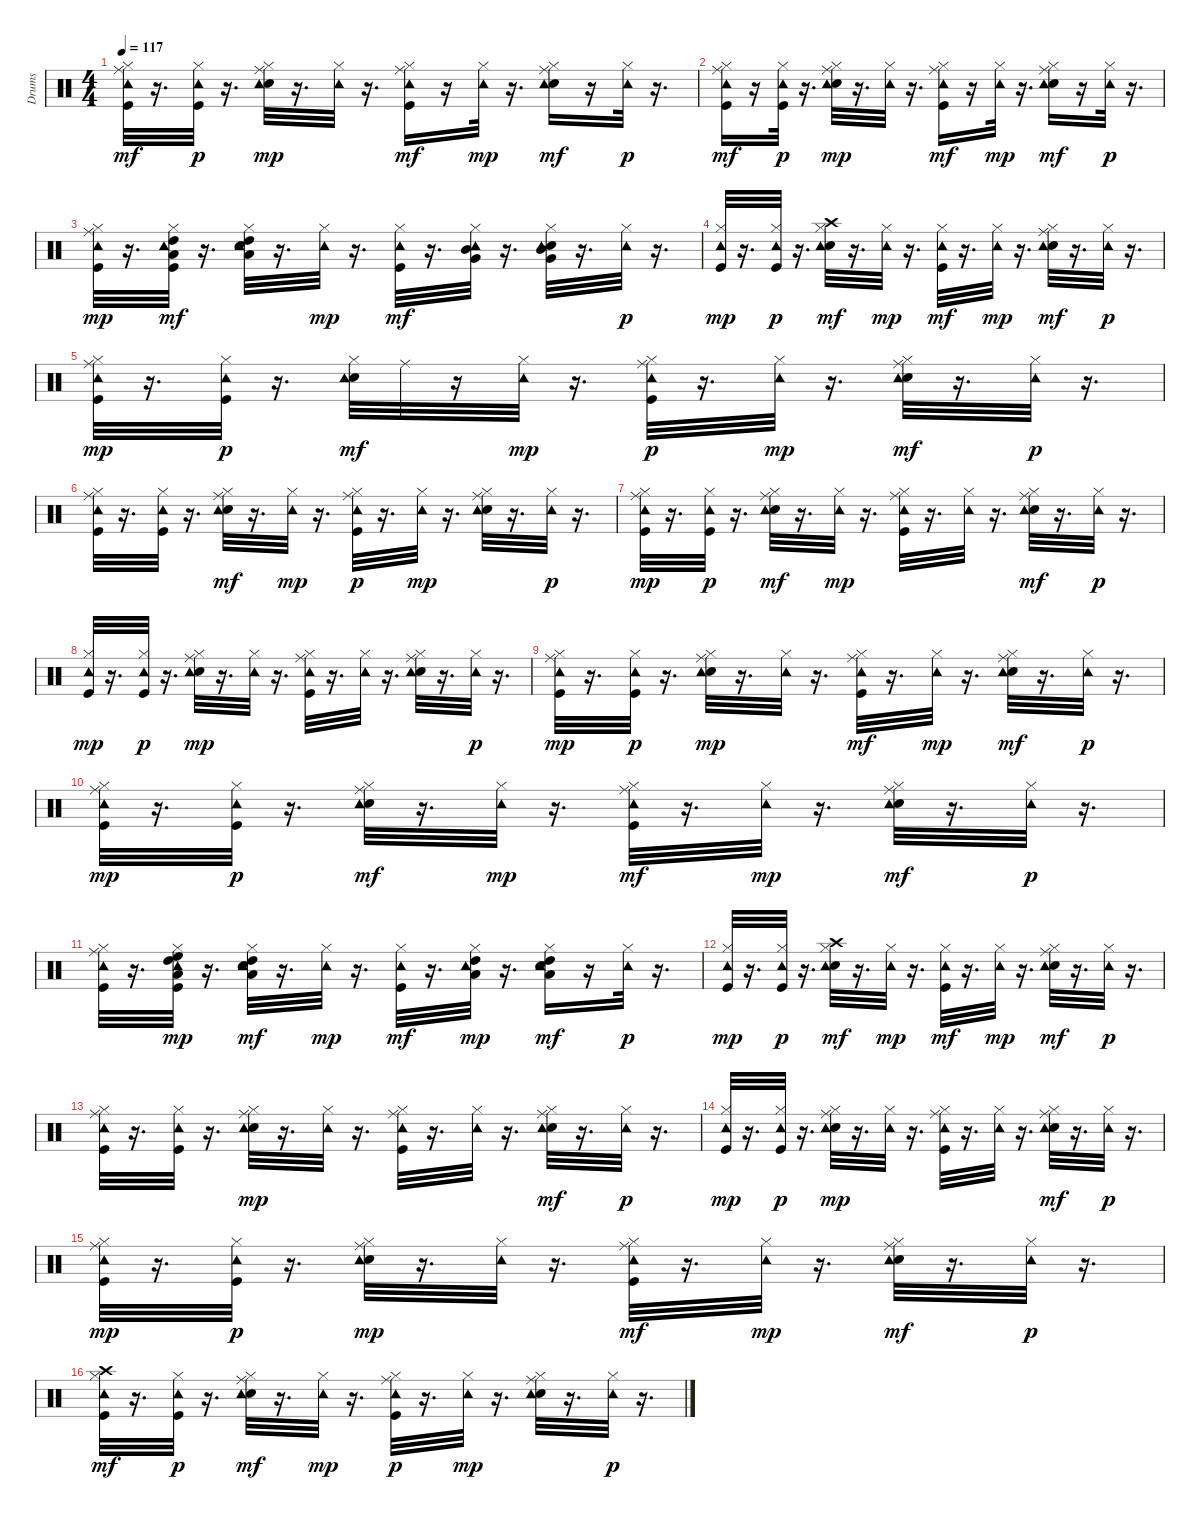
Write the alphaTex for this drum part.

\track ("Drums" "Drums") {instrument percussion}
\staff {score}
\articulation defaults
\ts (4 4)
\tempo 117
\clef neutral
\ks c
("Kick (hit)" "Hi-Hat (closed)" "Tambourine (hit)" "Ride (middle)").32{dy mf} r.16{d} ("Kick (hit)" "Hi-Hat (closed)" "Tambourine (hit)").32{dy p} r.16{d} ("Electric Snare (hit)" "Hi-Hat (closed)" "Tambourine (hit)" "Ride (middle)").32{dy mp} r.16{d} ("Hi-Hat (closed)" "Tambourine (hit)").32 r.16{d} ("Ride (middle)" "Kick (hit)" "Hi-Hat (closed)" "Tambourine (hit)").16{dy mf} r.16 ("Hi-Hat (closed)" "Tambourine (hit)").32{dy mp} r.16{d} ("Electric Snare (hit)" "Hi-Hat (closed)" "Tambourine (hit)" "Ride (middle)").16{dy mf} r.16 ("Hi-Hat (closed)" "Tambourine (hit)").32{dy p} r.16{d} |
("Kick (hit)" "Hi-Hat (closed)" "Tambourine (hit)" "Ride (middle)").16{dy mf} r.16 ("Kick (hit)" "Hi-Hat (closed)" "Tambourine (hit)").32{dy p} r.16{d} ("Electric Snare (hit)" "Hi-Hat (closed)" "Tambourine (hit)" "Ride (middle)").32{dy mp} r.16{d} ("Hi-Hat (closed)" "Tambourine (hit)").32 r.16{d} ("Kick (hit)" "Hi-Hat (closed)" "Tambourine (hit)" "Ride (middle)").16{dy mf} r.16 ("Hi-Hat (closed)" "Tambourine (hit)").32{dy mp} r.16{d} ("Electric Snare (hit)" "Hi-Hat (closed)" "Tambourine (hit)" "Ride (middle)").16{dy mf} r.16 ("Hi-Hat (closed)" "Tambourine (hit)").32{dy p} r.16{d} |
("Ride (middle)" "Kick (hit)" "Hi-Hat (closed)" "Tambourine (hit)").32{dy mp} r.16{d} ("High Tom (hit)" "Kick (hit)" "Hi-Hat (closed)" "Tambourine (hit)" "Low Tom (hit)").32{dy mf} r.16{d} ("Low Tom (hit)" "Electric Snare (hit)" "Hi-Hat (closed)" "Tambourine (hit)" "High Tom (hit)").32 r.16{d} ("Hi-Hat (closed)" "Tambourine (hit)").32{dy mp} r.16{d} ("Kick (hit)" "Hi-Hat (closed)" "Tambourine (hit)").32{dy mf} r.16{d} ("Mid Tom (hit)" "Hi-Hat (closed)" "Tambourine (hit)" "Very Low Tom (hit)").32 r.16{d} ("Electric Snare (hit)" "Hi-Hat (closed)" "Tambourine (hit)" "Mid Tom (hit)" "Very Low Tom (hit)").32 r.16{d} ("Hi-Hat (closed)" "Tambourine (hit)").32{dy p} r.16{d} |
("Kick (hit)" "Hi-Hat (closed)" "Tambourine (hit)").32{dy mp} r.16{d} ("Kick (hit)" "Hi-Hat (closed)" "Tambourine (hit)").32{dy p} r.16{d} ("Crash high (hit)" "Electric Snare (hit)" "Hi-Hat (closed)" "Tambourine (hit)").32{dy mf} r.16{d} ("Hi-Hat (closed)" "Tambourine (hit)").32{dy mp} r.16{d} ("Kick (hit)" "Hi-Hat (closed)" "Tambourine (hit)").32{dy mf} r.16{d} ("Hi-Hat (closed)" "Tambourine (hit)").32{dy mp} r.16{d} ("Electric Snare (hit)" "Hi-Hat (closed)" "Tambourine (hit)" "Ride (middle)").32{dy mf} r.16{d} ("Hi-Hat (closed)" "Tambourine (hit)").32{dy p} r.16{d} |
("Kick (hit)" "Hi-Hat (closed)" "Tambourine (hit)" "Ride (middle)").32{dy mp} r.16{d} ("Kick (hit)" "Hi-Hat (closed)" "Tambourine (hit)").32{dy p} r.16{d} ("Electric Snare (hit)" "Hi-Hat (closed)" "Tambourine (hit)").32{dy mf} "Ride (middle)".32 r.16 ("Hi-Hat (closed)" "Tambourine (hit)").32{dy mp} r.16{d} ("Kick (hit)" "Hi-Hat (closed)" "Tambourine (hit)" "Ride (middle)").32{dy p} r.16{d} ("Hi-Hat (closed)" "Tambourine (hit)").32{dy mp} r.16{d} ("Electric Snare (hit)" "Hi-Hat (closed)" "Tambourine (hit)" "Ride (middle)").32{dy mf} r.16{d} ("Hi-Hat (closed)" "Tambourine (hit)").32{dy p} r.16{d} |
("Kick (hit)" "Hi-Hat (closed)" "Tambourine (hit)" "Ride (middle)").32 r.16{d} ("Kick (hit)" "Hi-Hat (closed)" "Tambourine (hit)").32 r.16{d} ("Electric Snare (hit)" "Hi-Hat (closed)" "Tambourine (hit)" "Ride (middle)").32{dy mf} r.16{d} ("Hi-Hat (closed)" "Tambourine (hit)").32{dy mp} r.16{d} ("Kick (hit)" "Hi-Hat (closed)" "Tambourine (hit)" "Ride (middle)").32{dy p} r.16{d} ("Hi-Hat (closed)" "Tambourine (hit)").32{dy mp} r.16{d} ("Electric Snare (hit)" "Hi-Hat (closed)" "Tambourine (hit)" "Ride (middle)").32 r.16{d} ("Hi-Hat (closed)" "Tambourine (hit)").32{dy p} r.16{d} |
("Kick (hit)" "Hi-Hat (closed)" "Tambourine (hit)" "Ride (middle)").32{dy mp} r.16{d} ("Kick (hit)" "Hi-Hat (closed)" "Tambourine (hit)").32{dy p} r.16{d} ("Electric Snare (hit)" "Hi-Hat (closed)" "Tambourine (hit)" "Ride (middle)").32{dy mf} r.16{d} ("Hi-Hat (closed)" "Tambourine (hit)").32{dy mp} r.16{d} ("Kick (hit)" "Hi-Hat (closed)" "Tambourine (hit)" "Ride (middle)").32 r.16{d} ("Hi-Hat (closed)" "Tambourine (hit)").32 r.16{d} ("Electric Snare (hit)" "Hi-Hat (closed)" "Tambourine (hit)" "Ride (middle)").32{dy mf} r.16{d} ("Hi-Hat (closed)" "Tambourine (hit)").32{dy p} r.16{d} |
("Kick (hit)" "Hi-Hat (closed)" "Tambourine (hit)").32{dy mp} r.16{d} ("Kick (hit)" "Hi-Hat (closed)" "Tambourine (hit)").32{dy p} r.16{d} ("Electric Snare (hit)" "Hi-Hat (closed)" "Tambourine (hit)" "Ride (middle)").32{dy mp} r.16{d} ("Hi-Hat (closed)" "Tambourine (hit)").32 r.16{d} ("Kick (hit)" "Hi-Hat (closed)" "Tambourine (hit)" "Ride (middle)").32 r.16{d} ("Hi-Hat (closed)" "Tambourine (hit)").32 r.16{d} ("Electric Snare (hit)" "Hi-Hat (closed)" "Tambourine (hit)" "Ride (middle)").32 r.16{d} ("Hi-Hat (closed)" "Tambourine (hit)").32{dy p} r.16{d} |
("Kick (hit)" "Hi-Hat (closed)" "Tambourine (hit)" "Ride (middle)").32{dy mp} r.16{d} ("Kick (hit)" "Hi-Hat (closed)" "Tambourine (hit)").32{dy p} r.16{d} ("Electric Snare (hit)" "Hi-Hat (closed)" "Tambourine (hit)" "Ride (middle)").32{dy mp} r.16{d} ("Hi-Hat (closed)" "Tambourine (hit)").32 r.16{d} ("Kick (hit)" "Hi-Hat (closed)" "Tambourine (hit)" "Ride (middle)").32{dy mf} r.16{d} ("Hi-Hat (closed)" "Tambourine (hit)").32{dy mp} r.16{d} ("Electric Snare (hit)" "Hi-Hat (closed)" "Tambourine (hit)" "Ride (middle)").32{dy mf} r.16{d} ("Hi-Hat (closed)" "Tambourine (hit)").32{dy p} r.16{d} |
("Ride (middle)" "Kick (hit)" "Hi-Hat (closed)" "Tambourine (hit)").32{dy mp} r.16{d} ("Kick (hit)" "Hi-Hat (closed)" "Tambourine (hit)").32{dy p} r.16{d} ("Electric Snare (hit)" "Hi-Hat (closed)" "Tambourine (hit)" "Ride (middle)").32{dy mf} r.16{d} ("Hi-Hat (closed)" "Tambourine (hit)").32{dy mp} r.16{d} ("Ride (middle)" "Kick (hit)" "Hi-Hat (closed)" "Tambourine (hit)").32{dy mf} r.16{d} ("Hi-Hat (closed)" "Tambourine (hit)").32{dy mp} r.16{d} ("Electric Snare (hit)" "Hi-Hat (closed)" "Tambourine (hit)" "Ride (middle)").32{dy mf} r.16{d} ("Hi-Hat (closed)" "Tambourine (hit)").32{dy p} r.16{d} |
("Kick (hit)" "Hi-Hat (closed)" "Tambourine (hit)" "Ride (middle)").32 r.16{d} ("Kick (hit)" "Hi-Hat (closed)" "Tambourine (hit)" "High Tom (hit)" "High Floor Tom (hit)" "Low Tom (hit)").32{dy mp} r.16{d} ("Electric Snare (hit)" "Hi-Hat (closed)" "Tambourine (hit)" "High Tom (hit)" "Low Tom (hit)").32{dy mf} r.16{d} ("Hi-Hat (closed)" "Tambourine (hit)").32{dy mp} r.16{d} ("Kick (hit)" "Hi-Hat (closed)" "Tambourine (hit)").32{dy mf} r.16{d} ("High Tom (hit)" "Low Tom (hit)" "Hi-Hat (closed)" "Tambourine (hit)").32{dy mp} r.16{d} ("Electric Snare (hit)" "Hi-Hat (closed)" "Tambourine (hit)" "High Tom (hit)" "Low Tom (hit)").16{dy mf} r.16 ("Hi-Hat (closed)" "Tambourine (hit)").32{dy p} r.16{d} |
("Kick (hit)" "Hi-Hat (closed)" "Tambourine (hit)").32{dy mp} r.16{d} ("Kick (hit)" "Hi-Hat (closed)" "Tambourine (hit)").32{dy p} r.16{d} ("Crash high (hit)" "Electric Snare (hit)" "Hi-Hat (closed)" "Tambourine (hit)").32{dy mf} r.16{d} ("Hi-Hat (closed)" "Tambourine (hit)").32{dy mp} r.16{d} ("Kick (hit)" "Hi-Hat (closed)" "Tambourine (hit)").32{dy mf} r.16{d} ("Hi-Hat (closed)" "Tambourine (hit)").32{dy mp} r.16{d} ("Electric Snare (hit)" "Hi-Hat (closed)" "Tambourine (hit)" "Ride (middle)").32{dy mf} r.16{d} ("Hi-Hat (closed)" "Tambourine (hit)").32{dy p} r.16{d} |
("Kick (hit)" "Hi-Hat (closed)" "Tambourine (hit)" "Ride (middle)").32 r.16{d} ("Kick (hit)" "Hi-Hat (closed)" "Tambourine (hit)").32 r.16{d} ("Electric Snare (hit)" "Hi-Hat (closed)" "Tambourine (hit)" "Ride (middle)").32{dy mp} r.16{d} ("Hi-Hat (closed)" "Tambourine (hit)").32 r.16{d} ("Kick (hit)" "Hi-Hat (closed)" "Tambourine (hit)" "Ride (middle)").32 r.16{d} ("Hi-Hat (closed)" "Tambourine (hit)").32 r.16{d} ("Electric Snare (hit)" "Hi-Hat (closed)" "Tambourine (hit)" "Ride (middle)").32{dy mf} r.16{d} ("Hi-Hat (closed)" "Tambourine (hit)").32{dy p} r.16{d} |
("Kick (hit)" "Hi-Hat (closed)" "Tambourine (hit)").32{dy mp} r.16{d} ("Kick (hit)" "Hi-Hat (closed)" "Tambourine (hit)").32{dy p} r.16{d} ("Electric Snare (hit)" "Hi-Hat (closed)" "Tambourine (hit)" "Ride (middle)").32{dy mp} r.16{d} ("Hi-Hat (closed)" "Tambourine (hit)").32 r.16{d} ("Kick (hit)" "Hi-Hat (closed)" "Tambourine (hit)" "Ride (middle)").32 r.16{d} ("Hi-Hat (closed)" "Tambourine (hit)").32 r.16{d} ("Electric Snare (hit)" "Hi-Hat (closed)" "Tambourine (hit)" "Ride (middle)").32{dy mf} r.16{d} ("Hi-Hat (closed)" "Tambourine (hit)").32{dy p} r.16{d} |
("Kick (hit)" "Hi-Hat (closed)" "Tambourine (hit)" "Ride (middle)").32{dy mp} r.16{d} ("Kick (hit)" "Hi-Hat (closed)" "Tambourine (hit)").32{dy p} r.16{d} ("Electric Snare (hit)" "Hi-Hat (closed)" "Tambourine (hit)" "Ride (middle)").32{dy mp} r.16{d} ("Hi-Hat (closed)" "Tambourine (hit)").32 r.16{d} ("Kick (hit)" "Hi-Hat (closed)" "Tambourine (hit)" "Ride (middle)").32{dy mf} r.16{d} ("Hi-Hat (closed)" "Tambourine (hit)").32{dy mp} r.16{d} ("Electric Snare (hit)" "Hi-Hat (closed)" "Tambourine (hit)" "Ride (middle)").32{dy mf} r.16{d} ("Hi-Hat (closed)" "Tambourine (hit)").32{dy p} r.16{d} |
("Kick (hit)" "Hi-Hat (closed)" "Tambourine (hit)" "Crash high (hit)").32{dy mf} r.16{d} ("Kick (hit)" "Hi-Hat (closed)" "Tambourine (hit)").32{dy p} r.16{d} ("Electric Snare (hit)" "Hi-Hat (closed)" "Tambourine (hit)" "Ride (middle)").32{dy mf} r.16{d} ("Hi-Hat (closed)" "Tambourine (hit)").32{dy mp} r.16{d} ("Kick (hit)" "Hi-Hat (closed)" "Tambourine (hit)" "Ride (middle)").32{dy p} r.16{d} ("Hi-Hat (closed)" "Tambourine (hit)").32{dy mp} r.16{d} ("Electric Snare (hit)" "Hi-Hat (closed)" "Tambourine (hit)" "Ride (middle)").32 r.16{d} ("Hi-Hat (closed)" "Tambourine (hit)").32{dy p} r.16{d}
